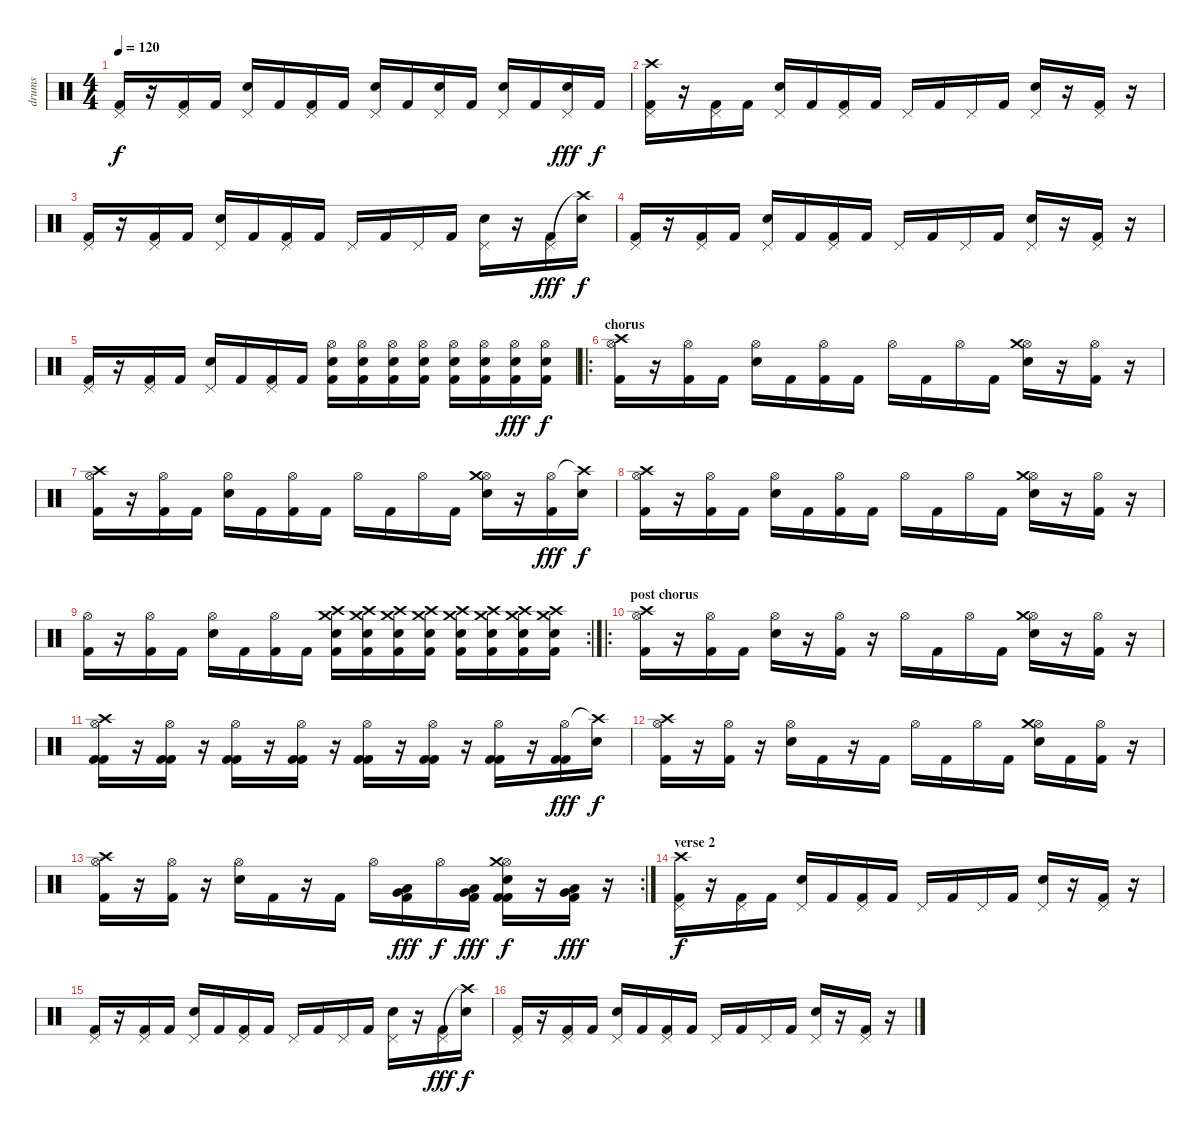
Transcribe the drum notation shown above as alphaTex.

\track ("drums" "drums") {instrument percussion}
\staff {score}
\articulation defaults
\ts (4 4)
\tempo 120
\clef neutral
\ks c
("Pedal Hi-Hat (hit)" "Kick (hit) 2").16{dy f} r.16 ("Pedal Hi-Hat (hit)" "Kick (hit) 2").16 "Kick (hit) 2".16 ("Pedal Hi-Hat (hit)" "Electric Snare (hit)").16 "Kick (hit) 2".16 ("Pedal Hi-Hat (hit)" "Kick (hit) 2").16 "Kick (hit) 2".16 ("Pedal Hi-Hat (hit)" "Electric Snare (hit)").16 "Kick (hit) 2".16 ("Pedal Hi-Hat (hit)" "Electric Snare (hit)").16 "Kick (hit) 2".16 ("Pedal Hi-Hat (hit)" "Electric Snare (hit)").16 "Kick (hit) 2".16 ("Pedal Hi-Hat (hit)" "Electric Snare (hit)").16{dy fff} "Kick (hit) 2".16{dy f} |
("Pedal Hi-Hat (hit)" "Crash high (hit)" "Kick (hit) 2").16 r.16 ("Pedal Hi-Hat (hit)" "Kick (hit) 2").16 "Kick (hit) 2".16 ("Pedal Hi-Hat (hit)" "Electric Snare (hit)").16 "Kick (hit) 2".16 ("Pedal Hi-Hat (hit)" "Kick (hit) 2").16 "Kick (hit) 2".16 "Pedal Hi-Hat (hit)".16 "Kick (hit) 2".16 "Pedal Hi-Hat (hit)".16 "Kick (hit) 2".16 ("Pedal Hi-Hat (hit)" "Electric Snare (hit)").16 r.16 ("Pedal Hi-Hat (hit)" "Kick (hit) 2").16 r.16 |
("Pedal Hi-Hat (hit)" "Kick (hit) 2").16 r.16 ("Pedal Hi-Hat (hit)" "Kick (hit) 2").16 "Kick (hit) 2".16 ("Pedal Hi-Hat (hit)" "Electric Snare (hit)").16 "Kick (hit) 2".16 ("Pedal Hi-Hat (hit)" "Kick (hit) 2").16 "Kick (hit) 2".16 "Pedal Hi-Hat (hit)".16 "Kick (hit) 2".16 "Pedal Hi-Hat (hit)".16 "Kick (hit) 2".16 ("Pedal Hi-Hat (hit)" "Electric Snare (hit)").16 r.16 ("Pedal Hi-Hat (hit)" "Kick (hit) 2").16{dy fff} ("Crash high (hit)"{t} "Electric Snare (hit)").16{dy f} |
("Pedal Hi-Hat (hit)" "Kick (hit) 2").16 r.16 ("Pedal Hi-Hat (hit)" "Kick (hit) 2").16 "Kick (hit) 2".16 ("Pedal Hi-Hat (hit)" "Electric Snare (hit)").16 "Kick (hit) 2".16 ("Pedal Hi-Hat (hit)" "Kick (hit) 2").16 "Kick (hit) 2".16 "Pedal Hi-Hat (hit)".16 "Kick (hit) 2".16 "Pedal Hi-Hat (hit)".16 "Kick (hit) 2".16 ("Pedal Hi-Hat (hit)" "Electric Snare (hit)").16 r.16 ("Pedal Hi-Hat (hit)" "Kick (hit) 2").16 r.16 |
("Pedal Hi-Hat (hit)" "Kick (hit) 2").16 r.16 ("Pedal Hi-Hat (hit)" "Kick (hit) 2").16 "Kick (hit) 2".16 ("Pedal Hi-Hat (hit)" "Electric Snare (hit)").16 "Kick (hit) 2".16 ("Pedal Hi-Hat (hit)" "Kick (hit) 2").16 "Kick (hit) 2".16 ("Hi-Hat (open)" "Kick (hit) 2" "Electric Snare (hit)").16 ("Hi-Hat (open)" "Kick (hit) 2" "Electric Snare (hit)").16 ("Hi-Hat (open)" "Kick (hit) 2" "Electric Snare (hit)").16 ("Hi-Hat (open)" "Kick (hit) 2" "Electric Snare (hit)").16 ("Hi-Hat (open)" "Kick (hit) 2" "Electric Snare (hit)").16 ("Hi-Hat (open)" "Kick (hit) 2" "Electric Snare (hit)").16 ("Hi-Hat (open)" "Kick (hit) 2" "Electric Snare (hit)").16{dy fff} ("Hi-Hat (open)" "Kick (hit) 2" "Electric Snare (hit)").16{dy f} |
\ro
\section ("" "chorus")
("Hi-Hat (open)" "Crash high (hit)" "Kick (hit) 2").16 r.16 ("Hi-Hat (open)" "Kick (hit) 2").16 "Kick (hit) 2".16 ("Hi-Hat (open)" "Electric Snare (hit)").16 "Kick (hit) 2".16 ("Hi-Hat (open)" "Kick (hit) 2").16 "Kick (hit) 2".16 "Hi-Hat (open)".16 "Kick (hit) 2".16 "Hi-Hat (open)".16 "Kick (hit) 2".16 ("Hi-Hat (open)" "Crash medium (hit)" "Electric Snare (hit)").16 r.16 ("Hi-Hat (open)" "Kick (hit) 2").16 r.16 |
("Hi-Hat (open)" "Crash high (hit)" "Kick (hit) 2").16 r.16 ("Hi-Hat (open)" "Kick (hit) 2").16 "Kick (hit) 2".16 ("Hi-Hat (open)" "Electric Snare (hit)").16 "Kick (hit) 2".16 ("Hi-Hat (open)" "Kick (hit) 2").16 "Kick (hit) 2".16 "Hi-Hat (open)".16 "Kick (hit) 2".16 "Hi-Hat (open)".16 "Kick (hit) 2".16 ("Hi-Hat (open)" "Crash medium (hit)" "Electric Snare (hit)").16 r.16 ("Hi-Hat (open)" "Kick (hit) 2").16{dy fff} ("Crash high (hit)"{t} "Electric Snare (hit)").16{dy f} |
("Hi-Hat (open)" "Crash high (hit)" "Kick (hit) 2").16 r.16 ("Hi-Hat (open)" "Kick (hit) 2").16 "Kick (hit) 2".16 ("Hi-Hat (open)" "Electric Snare (hit)").16 "Kick (hit) 2".16 ("Hi-Hat (open)" "Kick (hit) 2").16 "Kick (hit) 2".16 "Hi-Hat (open)".16 "Kick (hit) 2".16 "Hi-Hat (open)".16 "Kick (hit) 2".16 ("Hi-Hat (open)" "Crash medium (hit)" "Electric Snare (hit)").16 r.16 ("Hi-Hat (open)" "Kick (hit) 2").16 r.16 |
\rc 2
("Hi-Hat (open)" "Kick (hit) 2").16 r.16 ("Hi-Hat (open)" "Kick (hit) 2").16 "Kick (hit) 2".16 ("Hi-Hat (open)" "Electric Snare (hit)").16 "Kick (hit) 2".16 ("Hi-Hat (open)" "Kick (hit) 2").16 "Kick (hit) 2".16 ("Crash high (hit)" "Crash medium (hit)" "Electric Snare (hit)" "Kick (hit) 2").16 ("Crash high (hit)" "Crash medium (hit)" "Electric Snare (hit)" "Kick (hit) 2").16 ("Crash high (hit)" "Crash medium (hit)" "Electric Snare (hit)" "Kick (hit) 2").16 ("Crash high (hit)" "Crash medium (hit)" "Electric Snare (hit)" "Kick (hit) 2").16 ("Crash high (hit)" "Crash medium (hit)" "Electric Snare (hit)" "Kick (hit) 2").16 ("Crash high (hit)" "Crash medium (hit)" "Electric Snare (hit)" "Kick (hit) 2").16 ("Crash high (hit)" "Crash medium (hit)" "Electric Snare (hit)" "Kick (hit) 2").16 ("Crash high (hit)" "Crash medium (hit)" "Electric Snare (hit)" "Kick (hit) 2").16 |
\ro
\section ("" "post chorus")
("Hi-Hat (open)" "Crash high (hit)" "Kick (hit) 2").16 r.16 ("Hi-Hat (open)" "Kick (hit) 2").16 "Kick (hit) 2".16 ("Hi-Hat (open)" "Electric Snare (hit)").16 r.16 ("Hi-Hat (open)" "Kick (hit) 2").16 r.16 "Hi-Hat (open)".16 "Kick (hit) 2".16 "Hi-Hat (open)".16 "Kick (hit) 2".16 ("Hi-Hat (open)" "Crash medium (hit)" "Electric Snare (hit)").16 r.16 ("Hi-Hat (open)" "Kick (hit) 2").16 r.16 |
("Hi-Hat (open)" "Crash high (hit)" "Kick (hit) 2" "Kick (hit) 2").16 r.16 ("Hi-Hat (open)" "Kick (hit) 2" "Kick (hit) 2").16 r.16 ("Hi-Hat (open)" "Kick (hit) 2" "Kick (hit) 2").16 r.16 ("Hi-Hat (open)" "Kick (hit) 2" "Kick (hit) 2").16 r.16 ("Hi-Hat (open)" "Kick (hit) 2" "Kick (hit) 2").16 r.16 ("Hi-Hat (open)" "Kick (hit) 2" "Kick (hit) 2").16 r.16 ("Hi-Hat (open)" "Kick (hit) 2" "Kick (hit) 2").16 r.16 ("Hi-Hat (open)" "Kick (hit) 2" "Kick (hit) 2").16{dy fff} ("Crash high (hit)"{t} "Electric Snare (hit)").16{dy f} |
("Hi-Hat (open)" "Crash high (hit)" "Kick (hit) 2").16 r.16 ("Hi-Hat (open)" "Kick (hit) 2").16 r.16 ("Hi-Hat (open)" "Electric Snare (hit)").16 "Kick (hit) 2".16 r.16 "Kick (hit) 2".16 "Hi-Hat (open)".16 "Kick (hit) 2".16 "Hi-Hat (open)".16 "Kick (hit) 2".16 ("Hi-Hat (open)" "Crash medium (hit)" "Electric Snare (hit)").16 "Kick (hit) 2".16 ("Hi-Hat (open)" "Kick (hit) 2").16 r.16 |
\rc 2
("Hi-Hat (open)" "Crash high (hit)" "Kick (hit) 2").16 r.16 ("Hi-Hat (open)" "Kick (hit) 2").16 r.16 ("Hi-Hat (open)" "Electric Snare (hit)").16 "Kick (hit) 2".16 r.16 "Kick (hit) 2".16 "Hi-Hat (open)".16 ("Low Floor Tom (hit)" "Very Low Tom (hit)" "Kick (hit) 2").16{dy fff} "Hi-Hat (open)".16{dy f} ("Low Floor Tom (hit)" "Very Low Tom (hit)" "Kick (hit) 2").16{dy fff} ("Hi-Hat (open)" "Crash medium (hit)" "Kick (hit) 2" "Kick (hit) 2" "Electric Snare (hit)").16{dy f} r.16 ("Low Floor Tom (hit)" "Very Low Tom (hit)" "Kick (hit) 2").16{dy fff} r.16 |
\section ("" "verse 2")
("Pedal Hi-Hat (hit)" "Crash high (hit)" "Kick (hit) 2").16{dy f} r.16 ("Pedal Hi-Hat (hit)" "Kick (hit) 2").16 "Kick (hit) 2".16 ("Pedal Hi-Hat (hit)" "Electric Snare (hit)").16 "Kick (hit) 2".16 ("Pedal Hi-Hat (hit)" "Kick (hit) 2").16 "Kick (hit) 2".16 "Pedal Hi-Hat (hit)".16 "Kick (hit) 2".16 "Pedal Hi-Hat (hit)".16 "Kick (hit) 2".16 ("Pedal Hi-Hat (hit)" "Electric Snare (hit)").16 r.16 ("Pedal Hi-Hat (hit)" "Kick (hit) 2").16 r.16 |
("Pedal Hi-Hat (hit)" "Kick (hit) 2").16 r.16 ("Pedal Hi-Hat (hit)" "Kick (hit) 2").16 "Kick (hit) 2".16 ("Pedal Hi-Hat (hit)" "Electric Snare (hit)").16 "Kick (hit) 2".16 ("Pedal Hi-Hat (hit)" "Kick (hit) 2").16 "Kick (hit) 2".16 "Pedal Hi-Hat (hit)".16 "Kick (hit) 2".16 "Pedal Hi-Hat (hit)".16 "Kick (hit) 2".16 ("Pedal Hi-Hat (hit)" "Electric Snare (hit)").16 r.16 ("Pedal Hi-Hat (hit)" "Kick (hit) 2").16{dy fff} ("Crash high (hit)"{t} "Electric Snare (hit)").16{dy f} |
("Pedal Hi-Hat (hit)" "Kick (hit) 2").16 r.16 ("Pedal Hi-Hat (hit)" "Kick (hit) 2").16 "Kick (hit) 2".16 ("Pedal Hi-Hat (hit)" "Electric Snare (hit)").16 "Kick (hit) 2".16 ("Pedal Hi-Hat (hit)" "Kick (hit) 2").16 "Kick (hit) 2".16 "Pedal Hi-Hat (hit)".16 "Kick (hit) 2".16 "Pedal Hi-Hat (hit)".16 "Kick (hit) 2".16 ("Pedal Hi-Hat (hit)" "Electric Snare (hit)").16 r.16 ("Pedal Hi-Hat (hit)" "Kick (hit) 2").16 r.16
